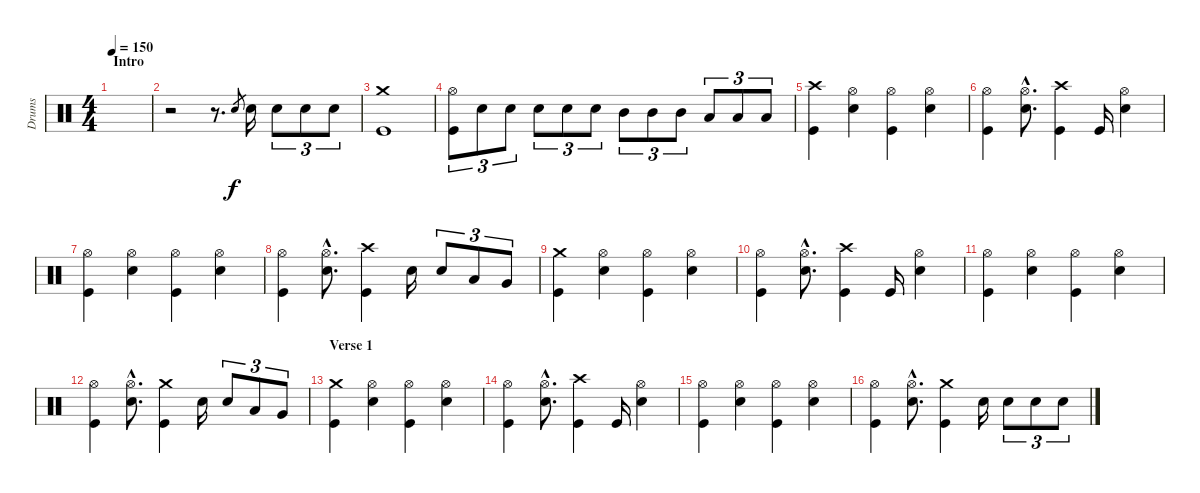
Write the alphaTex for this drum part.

\track ("Drums" "Drums") {instrument percussion}
\staff {score}
\articulation defaults
\ts (4 4)
\section ("" "Intro")
\tempo 150
\clef neutral
\ks c
|
r.2 r.8{d} "Snare (hit) 2".8{gr} "Snare (hit) 2".16 "Snare (hit) 2".8{tu (3 2)} "Snare (hit) 2".8{tu (3 2)} "Snare (hit) 2".8{tu (3 2)} |
("Crash medium (hit)" "Kick (hit)").1 |
("Hi-Hat (open)" "Kick (hit)").8{tu (3 2)} "Snare (hit) 2".8{tu (3 2)} "Snare (hit) 2".8{tu (3 2)} "Snare (hit) 2".8{tu (3 2)} "Snare (hit) 2".8{tu (3 2)} "Snare (hit) 2".8{tu (3 2)} "Mid Tom (hit)".8{tu (3 2)} "Mid Tom (hit)".8{tu (3 2)} "Mid Tom (hit)".8{tu (3 2)} "Low Tom (hit)".8{tu (3 2)} "Low Tom (hit)".8{tu (3 2)} "Low Tom (hit)".8{tu (3 2)} |
("Crash high (hit)" "Kick (hit)").4 ("Hi-Hat (open)" "Snare (hit) 2").4 ("Hi-Hat (open)" "Kick (hit)").4 ("Hi-Hat (open)" "Snare (hit) 2").4 |
("Hi-Hat (open)" "Kick (hit)").4 ("Hi-Hat (open)"{hac} "Snare (hit) 2"{hac}).8{d} ("Crash high (hit)" "Kick (hit)").4 "Kick (hit)".16 ("Hi-Hat (open)" "Snare (hit) 2").4 |
("Hi-Hat (open)" "Kick (hit)").4 ("Hi-Hat (open)" "Snare (hit) 2").4 ("Hi-Hat (open)" "Kick (hit)").4 ("Hi-Hat (open)" "Snare (hit) 2").4 |
("Hi-Hat (open)" "Kick (hit)").4 ("Hi-Hat (open)"{hac} "Snare (hit) 2"{hac}).8{d} ("Crash high (hit)" "Kick (hit)").4 "Snare (hit) 2".16 "Snare (hit) 2".8{tu (3 2)} "Low Tom (hit)".8{tu (3 2)} "Very Low Tom (hit)".8{tu (3 2)} |
("Crash medium (hit)" "Kick (hit)").4 ("Hi-Hat (open)" "Snare (hit) 2").4 ("Hi-Hat (open)" "Kick (hit)").4 ("Hi-Hat (open)" "Snare (hit) 2").4 |
("Hi-Hat (open)" "Kick (hit)").4 ("Hi-Hat (open)"{hac} "Snare (hit) 2"{hac}).8{d} ("Crash high (hit)" "Kick (hit)").4 "Kick (hit)".16 ("Hi-Hat (open)" "Snare (hit) 2").4 |
("Hi-Hat (open)" "Kick (hit)").4 ("Hi-Hat (open)" "Snare (hit) 2").4 ("Hi-Hat (open)" "Kick (hit)").4 ("Hi-Hat (open)" "Snare (hit) 2").4 |
("Hi-Hat (open)" "Kick (hit)").4 ("Hi-Hat (open)"{hac} "Snare (hit) 2"{hac}).8{d} ("Crash medium (hit)" "Kick (hit)").4 "Snare (hit) 2".16 "Snare (hit) 2".8{tu (3 2)} "Low Tom (hit)".8{tu (3 2)} "Very Low Tom (hit)".8{tu (3 2)} |
\section ("" "Verse 1")
("Crash medium (hit)" "Kick (hit)").4 ("Hi-Hat (open)" "Snare (hit) 2").4 ("Hi-Hat (open)" "Kick (hit)").4 ("Hi-Hat (open)" "Snare (hit) 2").4 |
("Hi-Hat (open)" "Kick (hit)").4 ("Hi-Hat (open)"{hac} "Snare (hit) 2"{hac}).8{d} ("Crash high (hit)" "Kick (hit)").4 "Kick (hit)".16 ("Hi-Hat (open)" "Snare (hit) 2").4 |
("Hi-Hat (open)" "Kick (hit)").4 ("Hi-Hat (open)" "Snare (hit) 2").4 ("Hi-Hat (open)" "Kick (hit)").4 ("Hi-Hat (open)" "Snare (hit) 2").4 |
("Hi-Hat (open)" "Kick (hit)").4 ("Hi-Hat (open)"{hac} "Snare (hit) 2"{hac}).8{d} ("Crash medium (hit)" "Kick (hit)").4 "Snare (hit) 2".16 "Snare (hit) 2".8{tu (3 2)} "Snare (hit) 2".8{tu (3 2)} "Snare (hit) 2".8{tu (3 2)}
